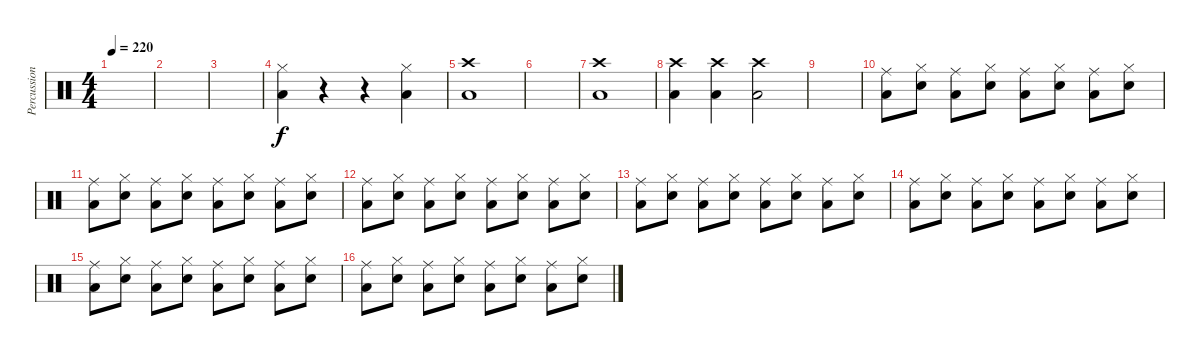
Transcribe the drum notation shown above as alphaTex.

\track ("Percussion" "Percussion") {instrument percussion}
\staff {score}
\articulation defaults
\ts (4 4)
\tempo 220
\clef neutral
\ks c
|
|
|
("Hi-Hat (closed)" "Low Floor Tom (hit)").4 r.4 r.4 ("Low Floor Tom (hit)" "Hi-Hat (closed)").4 |
("Crash high (hit)" "Low Floor Tom (hit)").1 |
|
("Low Floor Tom (hit)" "Crash high (hit)").1 |
("Crash high (hit)" "Low Floor Tom (hit)").4 ("Crash high (hit)" "Low Floor Tom (hit)").4 ("Crash high (hit)" "Low Floor Tom (hit)").2 |
|
("Low Floor Tom (hit)" "Ride (middle)").8 ("Electric Snare (hit)" "Hi-Hat (closed)").8 ("Low Floor Tom (hit)" "Ride (middle)").8 ("Electric Snare (hit)" "Hi-Hat (closed)").8 ("Low Floor Tom (hit)" "Ride (middle)").8 ("Electric Snare (hit)" "Hi-Hat (closed)").8 ("Low Floor Tom (hit)" "Ride (middle)").8 ("Electric Snare (hit)" "Hi-Hat (closed)").8 |
("Low Floor Tom (hit)" "Ride (middle)").8 ("Electric Snare (hit)" "Hi-Hat (closed)").8 ("Low Floor Tom (hit)" "Ride (middle)").8 ("Electric Snare (hit)" "Hi-Hat (closed)").8 ("Low Floor Tom (hit)" "Ride (middle)").8 ("Electric Snare (hit)" "Hi-Hat (closed)").8 ("Low Floor Tom (hit)" "Ride (middle)").8 ("Electric Snare (hit)" "Hi-Hat (closed)").8 |
("Low Floor Tom (hit)" "Ride (middle)").8 ("Electric Snare (hit)" "Hi-Hat (closed)").8 ("Low Floor Tom (hit)" "Ride (middle)").8 ("Electric Snare (hit)" "Hi-Hat (closed)").8 ("Low Floor Tom (hit)" "Ride (middle)").8 ("Electric Snare (hit)" "Hi-Hat (closed)").8 ("Low Floor Tom (hit)" "Ride (middle)").8 ("Electric Snare (hit)" "Hi-Hat (closed)").8 |
("Low Floor Tom (hit)" "Ride (middle)").8 ("Electric Snare (hit)" "Hi-Hat (closed)").8 ("Low Floor Tom (hit)" "Ride (middle)").8 ("Electric Snare (hit)" "Hi-Hat (closed)").8 ("Low Floor Tom (hit)" "Ride (middle)").8 ("Electric Snare (hit)" "Hi-Hat (closed)").8 ("Low Floor Tom (hit)" "Ride (middle)").8 ("Electric Snare (hit)" "Hi-Hat (closed)").8 |
("Low Floor Tom (hit)" "Ride (middle)").8 ("Electric Snare (hit)" "Hi-Hat (closed)").8 ("Low Floor Tom (hit)" "Ride (middle)").8 ("Electric Snare (hit)" "Hi-Hat (closed)").8 ("Low Floor Tom (hit)" "Ride (middle)").8 ("Electric Snare (hit)" "Hi-Hat (closed)").8 ("Low Floor Tom (hit)" "Ride (middle)").8 ("Electric Snare (hit)" "Hi-Hat (closed)").8 |
("Low Floor Tom (hit)" "Ride (middle)").8 ("Electric Snare (hit)" "Hi-Hat (closed)").8 ("Low Floor Tom (hit)" "Ride (middle)").8 ("Electric Snare (hit)" "Hi-Hat (closed)").8 ("Low Floor Tom (hit)" "Ride (middle)").8 ("Electric Snare (hit)" "Hi-Hat (closed)").8 ("Low Floor Tom (hit)" "Ride (middle)").8 ("Electric Snare (hit)" "Hi-Hat (closed)").8 |
("Low Floor Tom (hit)" "Ride (middle)").8 ("Electric Snare (hit)" "Hi-Hat (closed)").8 ("Low Floor Tom (hit)" "Ride (middle)").8 ("Electric Snare (hit)" "Hi-Hat (closed)").8 ("Low Floor Tom (hit)" "Ride (middle)").8 ("Electric Snare (hit)" "Hi-Hat (closed)").8 ("Low Floor Tom (hit)" "Ride (middle)").8 ("Electric Snare (hit)" "Hi-Hat (closed)").8
